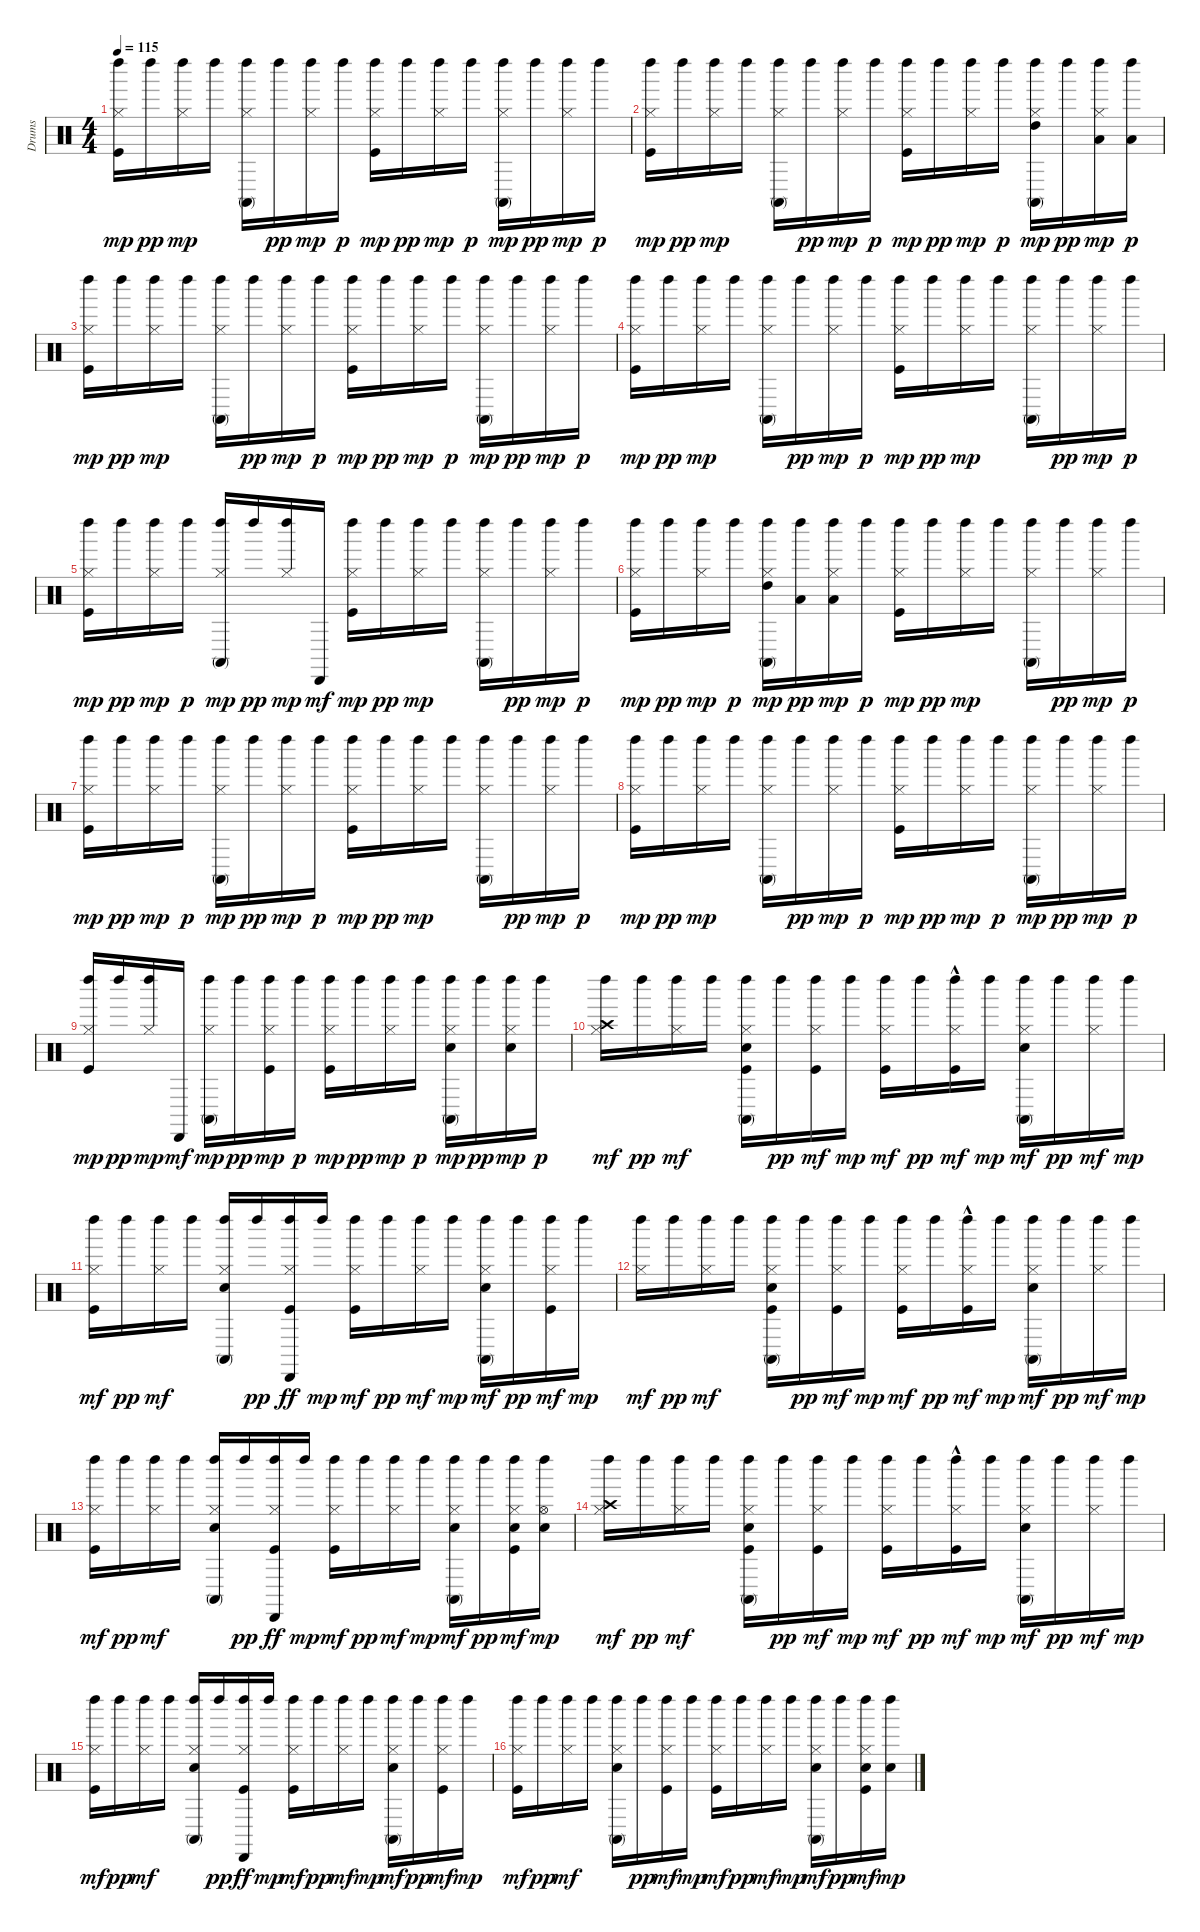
\track ("Drums" "Drums") {instrument percussion}
\staff {score}
\articulation defaults
\ts (4 4)
\tempo 115
\clef neutral
\ks c
("Kick (hit)" "Hi-Hat (closed)" "Left Maraca (hit)").16{dy mp} "Left Maraca (hit)".16{dy pp} ("Hi-Hat (closed)" "Left Maraca (hit)").16{dy mp} "Left Maraca (hit)".16 ("Hi-Hat (closed)" "Conga high (mute)" "Left Maraca (hit)").16 "Left Maraca (hit)".16{dy pp} ("Hi-Hat (closed)" "Left Maraca (hit)").16{dy mp} "Left Maraca (hit)".16{dy p} ("Kick (hit)" "Hi-Hat (closed)" "Left Maraca (hit)").16{dy mp} "Left Maraca (hit)".16{dy pp} ("Hi-Hat (closed)" "Left Maraca (hit)").16{dy mp} "Left Maraca (hit)".16{dy p} ("Hi-Hat (closed)" "Conga high (mute)" "Left Maraca (hit)").16{dy mp} "Left Maraca (hit)".16{dy pp} ("Hi-Hat (closed)" "Left Maraca (hit)").16{dy mp} "Left Maraca (hit)".16{dy p} |
("Kick (hit)" "Hi-Hat (closed)" "Left Maraca (hit)").16{dy mp} "Left Maraca (hit)".16{dy pp} ("Hi-Hat (closed)" "Left Maraca (hit)").16{dy mp} "Left Maraca (hit)".16 ("Hi-Hat (closed)" "Conga high (mute)" "Left Maraca (hit)").16 "Left Maraca (hit)".16{dy pp} ("Hi-Hat (closed)" "Left Maraca (hit)").16{dy mp} "Left Maraca (hit)".16{dy p} ("Kick (hit)" "Hi-Hat (closed)" "Left Maraca (hit)").16{dy mp} "Left Maraca (hit)".16{dy pp} ("Hi-Hat (closed)" "Left Maraca (hit)").16{dy mp} "Left Maraca (hit)".16{dy p} ("Hi-Hat (closed)" "High Tom (hit)" "Conga high (mute)" "Left Maraca (hit)").16{dy mp} "Left Maraca (hit)".16{dy pp} ("Hi-Hat (closed)" "Low Floor Tom (hit)" "Left Maraca (hit)").16{dy mp} ("Low Tom (hit)" "Left Maraca (hit)").16{dy p} |
("Kick (hit)" "Hi-Hat (closed)" "Left Maraca (hit)").16{dy mp} "Left Maraca (hit)".16{dy pp} ("Hi-Hat (closed)" "Left Maraca (hit)").16{dy mp} "Left Maraca (hit)".16 ("Hi-Hat (closed)" "Conga high (mute)" "Left Maraca (hit)").16 "Left Maraca (hit)".16{dy pp} ("Hi-Hat (closed)" "Left Maraca (hit)").16{dy mp} "Left Maraca (hit)".16{dy p} ("Kick (hit)" "Hi-Hat (closed)" "Left Maraca (hit)").16{dy mp} "Left Maraca (hit)".16{dy pp} ("Hi-Hat (closed)" "Left Maraca (hit)").16{dy mp} "Left Maraca (hit)".16{dy p} ("Hi-Hat (closed)" "Conga high (mute)" "Left Maraca (hit)").16{dy mp} "Left Maraca (hit)".16{dy pp} ("Hi-Hat (closed)" "Left Maraca (hit)").16{dy mp} "Left Maraca (hit)".16{dy p} |
("Kick (hit)" "Hi-Hat (closed)" "Left Maraca (hit)").16{dy mp} "Left Maraca (hit)".16{dy pp} ("Hi-Hat (closed)" "Left Maraca (hit)").16{dy mp} "Left Maraca (hit)".16 ("Hi-Hat (closed)" "Conga high (mute)" "Left Maraca (hit)").16 "Left Maraca (hit)".16{dy pp} ("Hi-Hat (closed)" "Left Maraca (hit)").16{dy mp} "Left Maraca (hit)".16{dy p} ("Kick (hit)" "Hi-Hat (closed)" "Left Maraca (hit)").16{dy mp} "Left Maraca (hit)".16{dy pp} ("Hi-Hat (closed)" "Left Maraca (hit)").16{dy mp} "Left Maraca (hit)".16 ("Hi-Hat (closed)" "Conga high (mute)" "Left Maraca (hit)").16 "Left Maraca (hit)".16{dy pp} ("Hi-Hat (closed)" "Left Maraca (hit)").16{dy mp} "Left Maraca (hit)".16{dy p} |
("Kick (hit)" "Hi-Hat (closed)" "Left Maraca (hit)").16{dy mp} "Left Maraca (hit)".16{dy pp} ("Hi-Hat (closed)" "Left Maraca (hit)").16{dy mp} "Left Maraca (hit)".16{dy p} ("Hi-Hat (closed)" "Conga high (mute)" "Left Maraca (hit)").16{dy mp} "Left Maraca (hit)".16{dy pp} ("Hi-Hat (closed)" "Left Maraca (hit)").16{dy mp} "Cabasa (hit)".16{dy mf} ("Kick (hit)" "Hi-Hat (closed)" "Left Maraca (hit)").16{dy mp} "Left Maraca (hit)".16{dy pp} ("Hi-Hat (closed)" "Left Maraca (hit)").16{dy mp} "Left Maraca (hit)".16 ("Hi-Hat (closed)" "Conga high (mute)" "Left Maraca (hit)").16 "Left Maraca (hit)".16{dy pp} ("Hi-Hat (closed)" "Left Maraca (hit)").16{dy mp} "Left Maraca (hit)".16{dy p} |
("Kick (hit)" "Hi-Hat (closed)" "Left Maraca (hit)").16{dy mp} "Left Maraca (hit)".16{dy pp} ("Hi-Hat (closed)" "Left Maraca (hit)").16{dy mp} "Left Maraca (hit)".16{dy p} ("Hi-Hat (closed)" "High Tom (hit)" "Conga high (mute)" "Left Maraca (hit)").16{dy mp} ("Low Tom (hit)" "Left Maraca (hit)").16{dy pp} ("Hi-Hat (closed)" "Low Floor Tom (hit)" "Left Maraca (hit)").16{dy mp} "Left Maraca (hit)".16{dy p} ("Kick (hit)" "Hi-Hat (closed)" "Left Maraca (hit)").16{dy mp} "Left Maraca (hit)".16{dy pp} ("Hi-Hat (closed)" "Left Maraca (hit)").16{dy mp} "Left Maraca (hit)".16 ("Hi-Hat (closed)" "Conga high (mute)" "Left Maraca (hit)").16 "Left Maraca (hit)".16{dy pp} ("Hi-Hat (closed)" "Left Maraca (hit)").16{dy mp} "Left Maraca (hit)".16{dy p} |
("Kick (hit)" "Hi-Hat (closed)" "Left Maraca (hit)").16{dy mp} "Left Maraca (hit)".16{dy pp} ("Hi-Hat (closed)" "Left Maraca (hit)").16{dy mp} "Left Maraca (hit)".16{dy p} ("Hi-Hat (closed)" "Conga high (mute)" "Left Maraca (hit)").16{dy mp} "Left Maraca (hit)".16{dy pp} ("Hi-Hat (closed)" "Left Maraca (hit)").16{dy mp} "Left Maraca (hit)".16{dy p} ("Kick (hit)" "Hi-Hat (closed)" "Left Maraca (hit)").16{dy mp} "Left Maraca (hit)".16{dy pp} ("Hi-Hat (closed)" "Left Maraca (hit)").16{dy mp} "Left Maraca (hit)".16 ("Hi-Hat (closed)" "Conga high (mute)" "Left Maraca (hit)").16 "Left Maraca (hit)".16{dy pp} ("Hi-Hat (closed)" "Left Maraca (hit)").16{dy mp} "Left Maraca (hit)".16{dy p} |
("Kick (hit)" "Hi-Hat (closed)" "Left Maraca (hit)").16{dy mp} "Left Maraca (hit)".16{dy pp} ("Hi-Hat (closed)" "Left Maraca (hit)").16{dy mp} "Left Maraca (hit)".16 ("Hi-Hat (closed)" "Conga high (mute)" "Left Maraca (hit)").16 "Left Maraca (hit)".16{dy pp} ("Hi-Hat (closed)" "Left Maraca (hit)").16{dy mp} "Left Maraca (hit)".16{dy p} ("Kick (hit)" "Hi-Hat (closed)" "Left Maraca (hit)").16{dy mp} "Left Maraca (hit)".16{dy pp} ("Hi-Hat (closed)" "Left Maraca (hit)").16{dy mp} "Left Maraca (hit)".16{dy p} ("Hi-Hat (closed)" "Conga high (mute)" "Left Maraca (hit)").16{dy mp} "Left Maraca (hit)".16{dy pp} ("Hi-Hat (closed)" "Left Maraca (hit)").16{dy mp} "Left Maraca (hit)".16{dy p} |
("Kick (hit)" "Hi-Hat (closed)" "Left Maraca (hit)").16{dy mp} "Left Maraca (hit)".16{dy pp} ("Hi-Hat (closed)" "Left Maraca (hit)").16{dy mp} "Cabasa (hit)".16{dy mf} ("Hi-Hat (closed)" "Conga high (mute)" "Left Maraca (hit)").16{dy mp} "Left Maraca (hit)".16{dy pp} ("Kick (hit)" "Hi-Hat (closed)" "Left Maraca (hit)").16{dy mp} "Left Maraca (hit)".16{dy p} ("Kick (hit)" "Hi-Hat (closed)" "Left Maraca (hit)").16{dy mp} "Left Maraca (hit)".16{dy pp} ("Hi-Hat (closed)" "Left Maraca (hit)").16{dy mp} "Left Maraca (hit)".16{dy p} ("Snare (hit) 2" "Hi-Hat (closed)" "Conga high (mute)" "Left Maraca (hit)").16{dy mp} "Left Maraca (hit)".16{dy pp} ("Snare (hit) 2" "Hi-Hat (closed)" "Left Maraca (hit)").16{dy mp} "Left Maraca (hit)".16{dy p} |
("Hi-Hat (closed)" "Crash high (hit)" "Left Maraca (hit)").16{dy mf} "Left Maraca (hit)".16{dy pp} ("Hi-Hat (closed)" "Left Maraca (hit)").16{dy mf} "Left Maraca (hit)".16 ("Kick (hit)" "Snare (hit) 2" "Hi-Hat (closed)" "Conga high (mute)" "Left Maraca (hit)").16 "Left Maraca (hit)".16{dy pp} ("Kick (hit)" "Hi-Hat (closed)" "Left Maraca (hit)").16{dy mf} "Left Maraca (hit)".16{dy mp} ("Kick (hit)" "Hi-Hat (closed)" "Left Maraca (hit)").16{dy mf} "Left Maraca (hit)".16{dy pp} ("Kick (hit)"{hac} "Hi-Hat (closed)" "Left Maraca (hit)").16{dy mf} "Left Maraca (hit)".16{dy mp} ("Snare (hit) 2" "Hi-Hat (closed)" "Conga high (mute)" "Left Maraca (hit)").16{dy mf} "Left Maraca (hit)".16{dy pp} ("Hi-Hat (closed)" "Left Maraca (hit)").16{dy mf} "Left Maraca (hit)".16{dy mp} |
("Kick (hit)" "Hi-Hat (closed)" "Left Maraca (hit)").16{dy mf} "Left Maraca (hit)".16{dy pp} ("Hi-Hat (closed)" "Left Maraca (hit)").16{dy mf} "Left Maraca (hit)".16 ("Snare (hit) 2" "Hi-Hat (closed)" "Conga high (mute)" "Left Maraca (hit)").16 "Left Maraca (hit)".16{dy pp} ("Kick (hit)" "Hi-Hat (closed)" "Left Maraca (hit)" "Cabasa (hit)").16{dy ff} "Left Maraca (hit)".16{dy mp} ("Kick (hit)" "Hi-Hat (closed)" "Left Maraca (hit)").16{dy mf} "Left Maraca (hit)".16{dy pp} ("Hi-Hat (closed)" "Left Maraca (hit)").16{dy mf} "Left Maraca (hit)".16{dy mp} ("Snare (hit) 2" "Hi-Hat (closed)" "Conga high (mute)" "Left Maraca (hit)").16{dy mf} "Left Maraca (hit)".16{dy pp} ("Kick (hit)" "Hi-Hat (closed)" "Left Maraca (hit)").16{dy mf} "Left Maraca (hit)".16{dy mp} |
("Hi-Hat (closed)" "Left Maraca (hit)").16{dy mf} "Left Maraca (hit)".16{dy pp} ("Hi-Hat (closed)" "Left Maraca (hit)").16{dy mf} "Left Maraca (hit)".16 ("Kick (hit)" "Snare (hit) 2" "Hi-Hat (closed)" "Conga high (mute)" "Left Maraca (hit)").16 "Left Maraca (hit)".16{dy pp} ("Kick (hit)" "Hi-Hat (closed)" "Left Maraca (hit)").16{dy mf} "Left Maraca (hit)".16{dy mp} ("Kick (hit)" "Hi-Hat (closed)" "Left Maraca (hit)").16{dy mf} "Left Maraca (hit)".16{dy pp} ("Kick (hit)"{hac} "Hi-Hat (closed)" "Left Maraca (hit)").16{dy mf} "Left Maraca (hit)".16{dy mp} ("Snare (hit) 2" "Hi-Hat (closed)" "Conga high (mute)" "Left Maraca (hit)").16{dy mf} "Left Maraca (hit)".16{dy pp} ("Hi-Hat (closed)" "Left Maraca (hit)").16{dy mf} "Left Maraca (hit)".16{dy mp} |
("Kick (hit)" "Hi-Hat (closed)" "Left Maraca (hit)").16{dy mf} "Left Maraca (hit)".16{dy pp} ("Hi-Hat (closed)" "Left Maraca (hit)").16{dy mf} "Left Maraca (hit)".16 ("Snare (hit) 2" "Hi-Hat (closed)" "Conga high (mute)" "Left Maraca (hit)").16 "Left Maraca (hit)".16{dy pp} ("Kick (hit)" "Hi-Hat (closed)" "Left Maraca (hit)" "Cabasa (hit)").16{dy ff} "Left Maraca (hit)".16{dy mp} ("Kick (hit)" "Hi-Hat (closed)" "Left Maraca (hit)").16{dy mf} "Left Maraca (hit)".16{dy pp} ("Hi-Hat (closed)" "Left Maraca (hit)").16{dy mf} "Left Maraca (hit)".16{dy mp} ("Snare (hit) 2" "Hi-Hat (closed)" "Conga high (mute)" "Left Maraca (hit)").16{dy mf} "Left Maraca (hit)".16{dy pp} ("Kick (hit)" "Snare (hit) 2" "Hi-Hat (closed)" "Left Maraca (hit)").16{dy mf} ("Snare (hit) 2" "Hi-Hat (open)" "Left Maraca (hit)").16{dy mp} |
("Hi-Hat (closed)" "Crash high (hit)" "Left Maraca (hit)").16{dy mf} "Left Maraca (hit)".16{dy pp} ("Hi-Hat (closed)" "Left Maraca (hit)").16{dy mf} "Left Maraca (hit)".16 ("Kick (hit)" "Snare (hit) 2" "Hi-Hat (closed)" "Conga high (mute)" "Left Maraca (hit)").16 "Left Maraca (hit)".16{dy pp} ("Kick (hit)" "Hi-Hat (closed)" "Left Maraca (hit)").16{dy mf} "Left Maraca (hit)".16{dy mp} ("Kick (hit)" "Hi-Hat (closed)" "Left Maraca (hit)").16{dy mf} "Left Maraca (hit)".16{dy pp} ("Kick (hit)"{hac} "Hi-Hat (closed)" "Left Maraca (hit)").16{dy mf} "Left Maraca (hit)".16{dy mp} ("Snare (hit) 2" "Hi-Hat (closed)" "Conga high (mute)" "Left Maraca (hit)").16{dy mf} "Left Maraca (hit)".16{dy pp} ("Hi-Hat (closed)" "Left Maraca (hit)").16{dy mf} "Left Maraca (hit)".16{dy mp} |
("Kick (hit)" "Hi-Hat (closed)" "Left Maraca (hit)").16{dy mf} "Left Maraca (hit)".16{dy pp} ("Hi-Hat (closed)" "Left Maraca (hit)").16{dy mf} "Left Maraca (hit)".16 ("Snare (hit) 2" "Hi-Hat (closed)" "Conga high (mute)" "Left Maraca (hit)").16 "Left Maraca (hit)".16{dy pp} ("Kick (hit)" "Hi-Hat (closed)" "Left Maraca (hit)" "Cabasa (hit)").16{dy ff} "Left Maraca (hit)".16{dy mp} ("Kick (hit)" "Hi-Hat (closed)" "Left Maraca (hit)").16{dy mf} "Left Maraca (hit)".16{dy pp} ("Hi-Hat (closed)" "Left Maraca (hit)").16{dy mf} "Left Maraca (hit)".16{dy mp} ("Snare (hit) 2" "Hi-Hat (closed)" "Conga high (mute)" "Left Maraca (hit)").16{dy mf} "Left Maraca (hit)".16{dy pp} ("Kick (hit)" "Hi-Hat (closed)" "Left Maraca (hit)").16{dy mf} "Left Maraca (hit)".16{dy mp} |
("Kick (hit)" "Hi-Hat (closed)" "Left Maraca (hit)").16{dy mf} "Left Maraca (hit)".16{dy pp} ("Hi-Hat (closed)" "Left Maraca (hit)").16{dy mf} "Left Maraca (hit)".16 ("Snare (hit) 2" "Hi-Hat (closed)" "Conga high (mute)" "Left Maraca (hit)").16 "Left Maraca (hit)".16{dy pp} ("Kick (hit)" "Hi-Hat (closed)" "Left Maraca (hit)").16{dy mf} "Left Maraca (hit)".16{dy mp} ("Kick (hit)" "Hi-Hat (closed)" "Left Maraca (hit)").16{dy mf} "Left Maraca (hit)".16{dy pp} ("Hi-Hat (closed)" "Left Maraca (hit)").16{dy mf} "Left Maraca (hit)".16{dy mp} ("Snare (hit) 2" "Hi-Hat (closed)" "Conga high (mute)" "Left Maraca (hit)").16{dy mf} "Left Maraca (hit)".16{dy pp} ("Kick (hit)" "Snare (hit) 2" "Hi-Hat (closed)" "Left Maraca (hit)").16{dy mf} ("Snare (hit) 2" "Left Maraca (hit)").16{dy mp}
